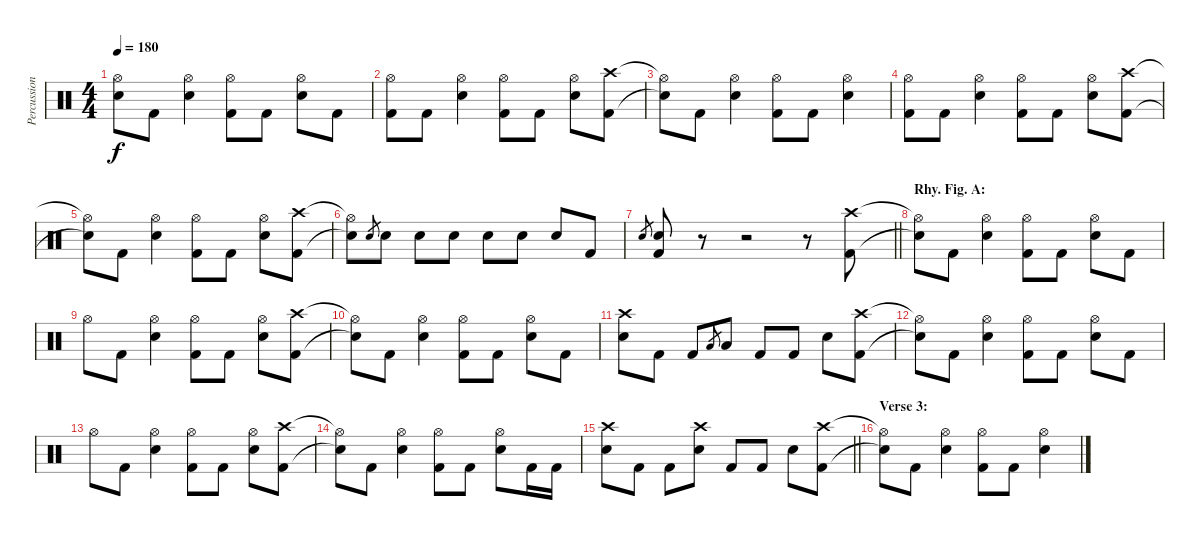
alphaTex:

\track ("Percussion" "Percussion") {instrument percussion}
\staff {score}
\articulation defaults
\ts (4 4)
\tempo 180
\clef neutral
\ks c
("Hi-Hat (open)"{t} "Snare (hit)"{t}).8{dy f} "Kick (hit) 2".8 ("Hi-Hat (open)" "Electric Snare (hit)").4 ("Hi-Hat (open)" "Kick (hit) 2").8 "Kick (hit) 2".8 ("Hi-Hat (open)" "Electric Snare (hit)").8 "Kick (hit) 2".8 |
("Hi-Hat (open)" "Kick (hit) 2").8 "Kick (hit) 2".8 ("Hi-Hat (open)" "Electric Snare (hit)").4 ("Hi-Hat (open)" "Kick (hit) 2").8 "Kick (hit) 2".8 ("Hi-Hat (open)" "Electric Snare (hit)").8 ("Crash high (hit)" "Kick (hit) 2").8 |
("Hi-Hat (open)"{t} "Snare (hit)"{t}).8 "Kick (hit) 2".8 ("Hi-Hat (open)" "Electric Snare (hit)").4 ("Hi-Hat (open)" "Kick (hit) 2").8 "Kick (hit) 2".8 ("Hi-Hat (open)" "Electric Snare (hit)").4 |
("Hi-Hat (open)" "Kick (hit) 2").8 "Kick (hit) 2".8 ("Hi-Hat (open)" "Electric Snare (hit)").4 ("Hi-Hat (open)" "Kick (hit) 2").8 "Kick (hit) 2".8 ("Hi-Hat (open)" "Electric Snare (hit)").8 ("Crash high (hit)" "Kick (hit) 2").8 |
("Hi-Hat (open)"{t} "Snare (hit)"{t}).8 "Kick (hit) 2".8 ("Hi-Hat (open)" "Electric Snare (hit)").4 ("Hi-Hat (open)" "Kick (hit) 2").8 "Kick (hit) 2".8 ("Hi-Hat (open)" "Electric Snare (hit)").8 ("Crash high (hit)" "Kick (hit) 2").8 |
("Hi-Hat (open)"{t} "Snare (hit)"{t}).8 "Electric Snare (hit)".8{gr} "Electric Snare (hit)".8 "Electric Snare (hit)".8 "Electric Snare (hit)".8 "Electric Snare (hit)".8 "Electric Snare (hit)".8 "Electric Snare (hit)".8 "Kick (hit) 2".8 |
\barLineRight lightlight "Electric Snare (hit)".8{gr}
("Electric Snare (hit)" "Kick (hit) 2").8 r.8 r.2 r.8 ("Crash high (hit)" "Kick (hit) 2").8 |
\section ("" "Rhy. Fig. A:")
("Hi-Hat (open)"{t} "Snare (hit)"{t}).8 "Kick (hit) 2".8 ("Hi-Hat (open)" "Electric Snare (hit)").4 ("Hi-Hat (open)" "Kick (hit) 2").8 "Kick (hit) 2".8 ("Hi-Hat (open)" "Electric Snare (hit)").8 "Kick (hit) 2".8 |
"Hi-Hat (open)".8 "Kick (hit) 2".8 ("Hi-Hat (open)" "Electric Snare (hit)").4 ("Hi-Hat (open)" "Kick (hit) 2").8 "Kick (hit) 2".8 ("Hi-Hat (open)" "Electric Snare (hit)").8 ("Crash high (hit)" "Kick (hit) 2").8 |
("Hi-Hat (open)"{t} "Snare (hit)"{t}).8 "Kick (hit) 2".8 ("Hi-Hat (open)" "Electric Snare (hit)").4 ("Hi-Hat (open)" "Kick (hit) 2").8 "Kick (hit) 2".8 ("Hi-Hat (open)" "Electric Snare (hit)").8 "Kick (hit) 2".8 |
("Crash high (hit)" "Electric Snare (hit)").8 "Kick (hit) 2".8 "Kick (hit) 2".8 "Low Tom (hit)".8{gr} "Low Tom (hit)".8 "Kick (hit) 2".8 "Kick (hit) 2".8 "Electric Snare (hit)".8 ("Crash high (hit)" "Kick (hit) 2").8 |
("Hi-Hat (open)"{t} "Snare (hit)"{t}).8 "Kick (hit) 2".8 ("Hi-Hat (open)" "Electric Snare (hit)").4 ("Hi-Hat (open)" "Kick (hit) 2").8 "Kick (hit) 2".8 ("Hi-Hat (open)" "Electric Snare (hit)").8 "Kick (hit) 2".8 |
"Hi-Hat (open)".8 "Kick (hit) 2".8 ("Hi-Hat (open)" "Electric Snare (hit)").4 ("Hi-Hat (open)" "Kick (hit) 2").8 "Kick (hit) 2".8 ("Hi-Hat (open)" "Electric Snare (hit)").8 ("Crash high (hit)" "Kick (hit) 2").8 |
("Hi-Hat (open)"{t} "Snare (hit)"{t}).8 "Kick (hit) 2".8 ("Hi-Hat (open)" "Electric Snare (hit)").4 ("Hi-Hat (open)" "Kick (hit) 2").8 "Kick (hit) 2".8 ("Hi-Hat (open)" "Electric Snare (hit)").8 "Kick (hit) 2".16 "Kick (hit) 2".16 |
\barLineRight lightlight
("Crash high (hit)" "Electric Snare (hit)").8 "Kick (hit) 2".8 "Kick (hit) 2".8 ("Crash high (hit)" "Electric Snare (hit)").8 "Kick (hit) 2".8 "Kick (hit) 2".8 "Electric Snare (hit)".8 ("Crash high (hit)" "Kick (hit) 2").8 |
\section ("" "Verse 3:")
("Hi-Hat (open)"{t} "Snare (hit)"{t}).8 "Kick (hit) 2".8 ("Hi-Hat (open)" "Electric Snare (hit)").4 ("Hi-Hat (open)" "Kick (hit) 2").8 "Kick (hit) 2".8 ("Hi-Hat (open)" "Electric Snare (hit)").4
